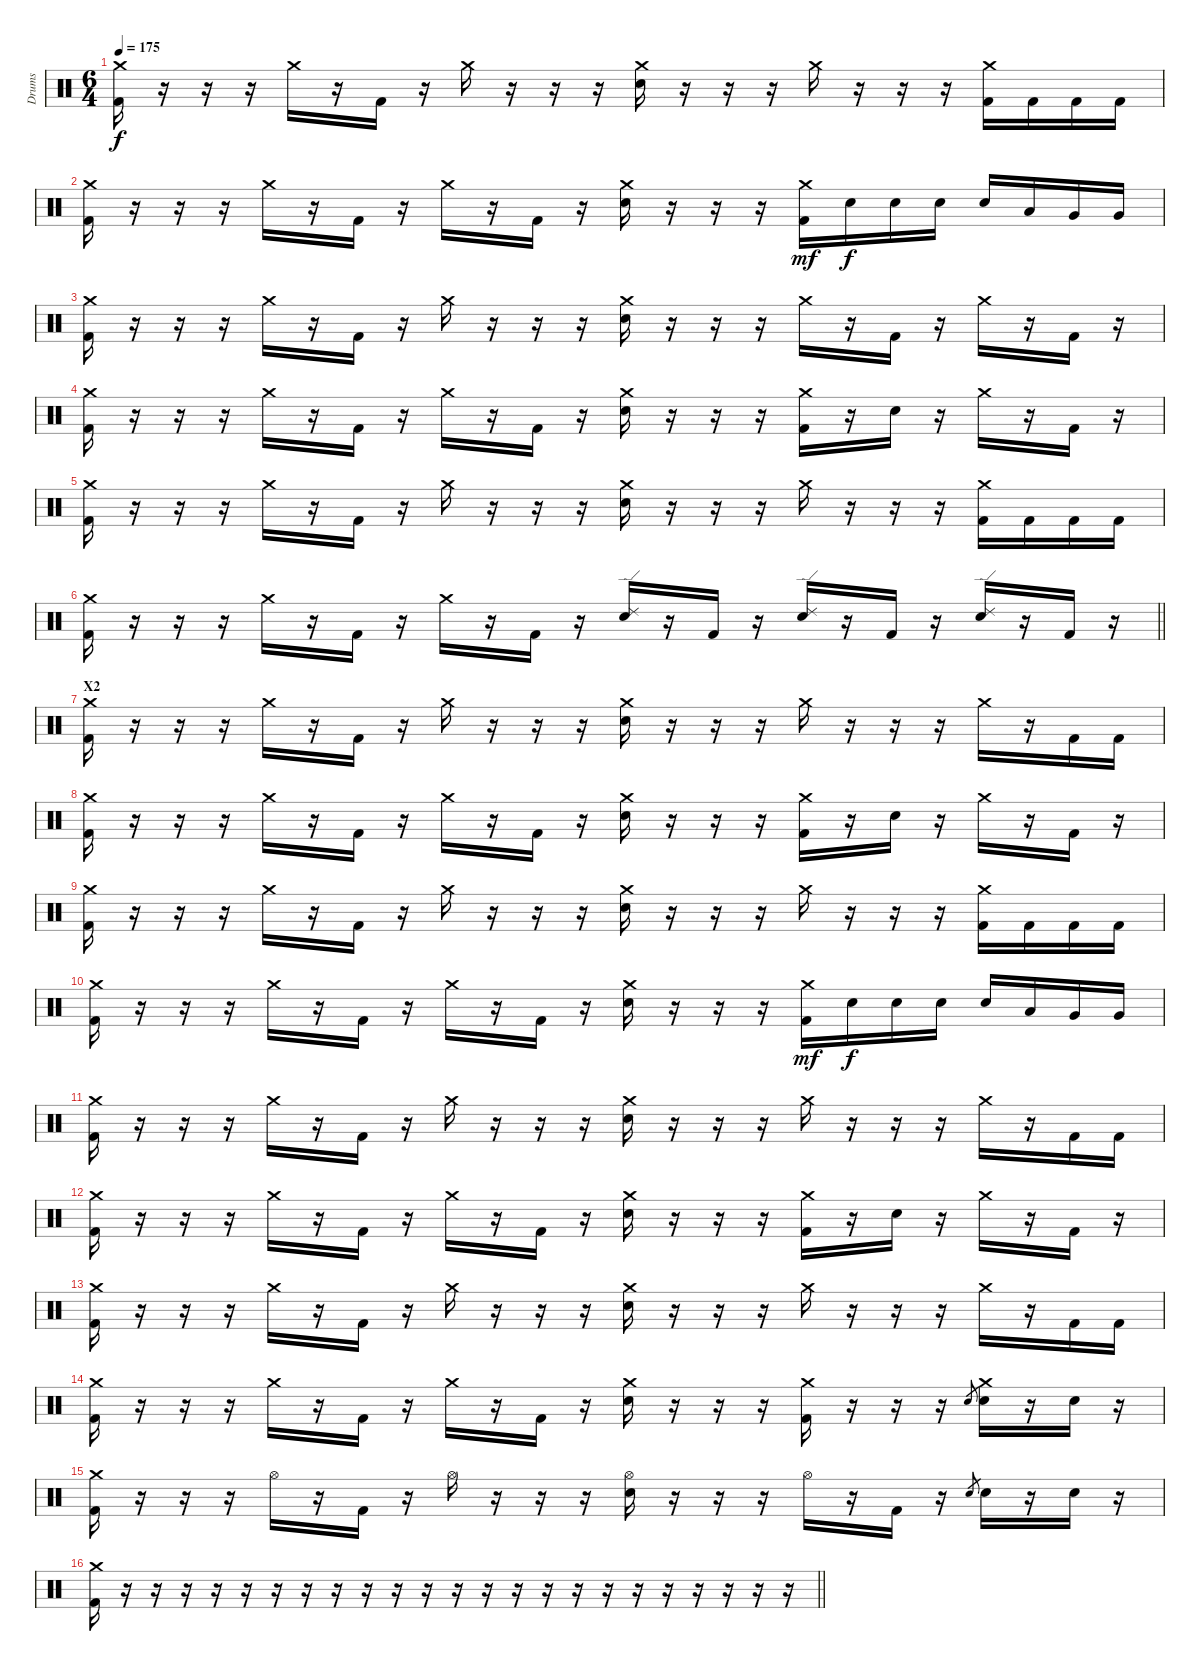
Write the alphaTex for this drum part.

\track ("Drums" "Drums") {instrument percussion}
\staff {score}
\articulation defaults
\ts (6 4)
\tempo 175
\clef neutral
\ks c
("Crash medium (hit)" "Kick (hit) 2").16{dy f} r.16 r.16 r.16 "Crash medium (hit)".16 r.16 "Kick (hit) 2".16 r.16 "Crash medium (hit)".16 r.16 r.16 r.16 ("Crash medium (hit)" "Electric Snare (hit)").16 r.16 r.16 r.16 "Crash medium (hit)".16 r.16 r.16 r.16 ("Crash medium (hit)" "Kick (hit) 2").16 "Kick (hit) 2".16 "Kick (hit) 2".16 "Kick (hit) 2".16 |
("Crash medium (hit)" "Kick (hit) 2").16 r.16 r.16 r.16 "Crash medium (hit)".16 r.16 "Kick (hit) 2".16 r.16 "Crash medium (hit)".16 r.16 "Kick (hit) 2".16 r.16 ("Crash medium (hit)" "Electric Snare (hit)").16 r.16 r.16 r.16 ("Crash medium (hit)" "Kick (hit) 2").16{dy mf} "Electric Snare (hit)".16{dy f} "Electric Snare (hit)".16 "Electric Snare (hit)".16 "Electric Snare (hit)".16 "Low Tom (hit)".16 "Very Low Tom (hit)".16 "Very Low Tom (hit)".16 |
("Crash medium (hit)" "Kick (hit) 2").16 r.16 r.16 r.16 "Crash medium (hit)".16 r.16 "Kick (hit) 2".16 r.16 "Crash medium (hit)".16 r.16 r.16 r.16 ("Crash medium (hit)" "Electric Snare (hit)").16 r.16 r.16 r.16 "Crash medium (hit)".16 r.16 "Kick (hit) 2".16 r.16 "Crash medium (hit)".16 r.16 "Kick (hit) 2".16 r.16 |
("Crash medium (hit)" "Kick (hit) 2").16 r.16 r.16 r.16 "Crash medium (hit)".16 r.16 "Kick (hit) 2".16 r.16 "Crash medium (hit)".16 r.16 "Kick (hit) 2".16 r.16 ("Crash medium (hit)" "Electric Snare (hit)").16 r.16 r.16 r.16 ("Crash medium (hit)" "Kick (hit) 2").16 r.16 "Electric Snare (hit)".16 r.16 "Crash medium (hit)".16 r.16 "Kick (hit) 2".16 r.16 |
("Crash medium (hit)" "Kick (hit) 2").16 r.16 r.16 r.16 "Crash medium (hit)".16 r.16 "Kick (hit) 2".16 r.16 "Crash medium (hit)".16 r.16 r.16 r.16 ("Crash medium (hit)" "Electric Snare (hit)").16 r.16 r.16 r.16 "Crash medium (hit)".16 r.16 r.16 r.16 ("Crash medium (hit)" "Kick (hit) 2").16 "Kick (hit) 2".16 "Kick (hit) 2".16 "Kick (hit) 2".16 |
\barLineRight lightlight
("Crash medium (hit)" "Kick (hit) 2").16 r.16 r.16 r.16 "Crash medium (hit)".16 r.16 "Kick (hit) 2".16 r.16 "Crash medium (hit)".16 r.16 "Kick (hit) 2".16 r.16 ("Ride (edge) 2" "Electric Snare (hit)").16 r.16 "Kick (hit) 2".16 r.16 ("Ride (edge) 2" "Electric Snare (hit)").16 r.16 "Kick (hit) 2".16 r.16 ("Ride (edge) 2" "Electric Snare (hit)").16 r.16 "Kick (hit) 2".16 r.16 |
\section ("" "X2")
("Crash medium (hit)" "Kick (hit) 2").16 r.16 r.16 r.16 "Crash medium (hit)".16 r.16 "Kick (hit) 2".16 r.16 "Crash medium (hit)".16 r.16 r.16 r.16 ("Crash medium (hit)" "Electric Snare (hit)").16 r.16 r.16 r.16 "Crash medium (hit)".16 r.16 r.16 r.16 "Crash medium (hit)".16 r.16 "Kick (hit) 2".16 "Kick (hit) 2".16 |
("Crash medium (hit)" "Kick (hit) 2").16 r.16 r.16 r.16 "Crash medium (hit)".16 r.16 "Kick (hit) 2".16 r.16 "Crash medium (hit)".16 r.16 "Kick (hit) 2".16 r.16 ("Crash medium (hit)" "Electric Snare (hit)").16 r.16 r.16 r.16 ("Crash medium (hit)" "Kick (hit) 2").16 r.16 "Electric Snare (hit)".16 r.16 "Crash medium (hit)".16 r.16 "Kick (hit) 2".16 r.16 |
("Crash medium (hit)" "Kick (hit) 2").16 r.16 r.16 r.16 "Crash medium (hit)".16 r.16 "Kick (hit) 2".16 r.16 "Crash medium (hit)".16 r.16 r.16 r.16 ("Crash medium (hit)" "Electric Snare (hit)").16 r.16 r.16 r.16 "Crash medium (hit)".16 r.16 r.16 r.16 ("Crash medium (hit)" "Kick (hit) 2").16 "Kick (hit) 2".16 "Kick (hit) 2".16 "Kick (hit) 2".16 |
("Crash medium (hit)" "Kick (hit) 2").16 r.16 r.16 r.16 "Crash medium (hit)".16 r.16 "Kick (hit) 2".16 r.16 "Crash medium (hit)".16 r.16 "Kick (hit) 2".16 r.16 ("Crash medium (hit)" "Electric Snare (hit)").16 r.16 r.16 r.16 ("Crash medium (hit)" "Kick (hit) 2").16{dy mf} "Electric Snare (hit)".16{dy f} "Electric Snare (hit)".16 "Electric Snare (hit)".16 "Electric Snare (hit)".16 "Low Tom (hit)".16 "Very Low Tom (hit)".16 "Very Low Tom (hit)".16 |
("Crash medium (hit)" "Kick (hit) 2").16 r.16 r.16 r.16 "Crash medium (hit)".16 r.16 "Kick (hit) 2".16 r.16 "Crash medium (hit)".16 r.16 r.16 r.16 ("Crash medium (hit)" "Electric Snare (hit)").16 r.16 r.16 r.16 "Crash medium (hit)".16 r.16 r.16 r.16 "Crash medium (hit)".16 r.16 "Kick (hit) 2".16 "Kick (hit) 2".16 |
("Crash medium (hit)" "Kick (hit) 2").16 r.16 r.16 r.16 "Crash medium (hit)".16 r.16 "Kick (hit) 2".16 r.16 "Crash medium (hit)".16 r.16 "Kick (hit) 2".16 r.16 ("Crash medium (hit)" "Electric Snare (hit)").16 r.16 r.16 r.16 ("Crash medium (hit)" "Kick (hit) 2").16 r.16 "Electric Snare (hit)".16 r.16 "Crash medium (hit)".16 r.16 "Kick (hit) 2".16 r.16 |
("Crash medium (hit)" "Kick (hit) 2").16 r.16 r.16 r.16 "Crash medium (hit)".16 r.16 "Kick (hit) 2".16 r.16 "Crash medium (hit)".16 r.16 r.16 r.16 ("Crash medium (hit)" "Electric Snare (hit)").16 r.16 r.16 r.16 "Crash medium (hit)".16 r.16 r.16 r.16 "Crash medium (hit)".16 r.16 "Kick (hit) 2".16 "Kick (hit) 2".16 |
("Crash medium (hit)" "Kick (hit) 2").16 r.16 r.16 r.16 "Crash medium (hit)".16 r.16 "Kick (hit) 2".16 r.16 "Crash medium (hit)".16 r.16 "Kick (hit) 2".16 r.16 ("Crash medium (hit)" "Electric Snare (hit)").16 r.16 r.16 r.16 ("Crash medium (hit)" "Kick (hit) 2").16 r.16 r.16 r.16 "Electric Snare (hit)".8{gr} ("Crash medium (hit)" "Electric Snare (hit)").16 r.16 "Electric Snare (hit)".16 r.16 |
("Crash medium (hit)" "Kick (hit) 2").16 r.16 r.16 r.16 "Hi-Hat (open)".16 r.16 "Kick (hit) 2".16 r.16 "Hi-Hat (open)".16 r.16 r.16 r.16 ("Hi-Hat (open)" "Electric Snare (hit)").16 r.16 r.16 r.16 "Hi-Hat (open)".16 r.16 "Kick (hit) 2".16 r.16 "Electric Snare (hit)".8{gr} "Electric Snare (hit)".16 r.16 "Electric Snare (hit)".16 r.16 |
\barLineRight lightlight
("Crash medium (hit)" "Kick (hit) 2").16 r.16 r.16 r.16 r.16 r.16 r.16 r.16 r.16 r.16 r.16 r.16 r.16 r.16 r.16 r.16 r.16 r.16 r.16 r.16 r.16 r.16 r.16 r.16
